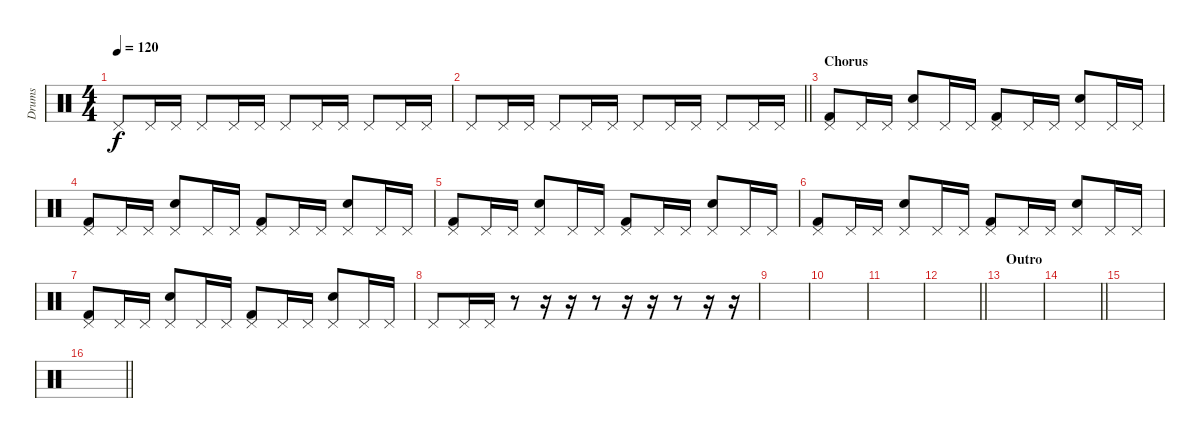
\track ("Drums" "Drums") {instrument percussion}
\staff {score}
\articulation defaults
\ts (4 4)
\tempo 120
\clef neutral
\ks c "Pedal Hi-Hat (hit)".8{dy f} "Pedal Hi-Hat (hit)".16 "Pedal Hi-Hat (hit)".16 "Pedal Hi-Hat (hit)".8 "Pedal Hi-Hat (hit)".16 "Pedal Hi-Hat (hit)".16 "Pedal Hi-Hat (hit)".8 "Pedal Hi-Hat (hit)".16 "Pedal Hi-Hat (hit)".16 "Pedal Hi-Hat (hit)".8 "Pedal Hi-Hat (hit)".16 "Pedal Hi-Hat (hit)".16
|
\barLineRight lightlight "Pedal Hi-Hat (hit)".8 "Pedal Hi-Hat (hit)".16 "Pedal Hi-Hat (hit)".16 "Pedal Hi-Hat (hit)".8 "Pedal Hi-Hat (hit)".16 "Pedal Hi-Hat (hit)".16 "Pedal Hi-Hat (hit)".8 "Pedal Hi-Hat (hit)".16 "Pedal Hi-Hat (hit)".16 "Pedal Hi-Hat (hit)".8 "Pedal Hi-Hat (hit)".16 "Pedal Hi-Hat (hit)".16
|
\section ("" "Chorus")
("Kick (hit) 2" "Pedal Hi-Hat (hit)").8 "Pedal Hi-Hat (hit)".16 "Pedal Hi-Hat (hit)".16 ("Electric Snare (hit)" "Pedal Hi-Hat (hit)").8 "Pedal Hi-Hat (hit)".16 "Pedal Hi-Hat (hit)".16 ("Kick (hit) 2" "Pedal Hi-Hat (hit)").8 "Pedal Hi-Hat (hit)".16 "Pedal Hi-Hat (hit)".16 ("Electric Snare (hit)" "Pedal Hi-Hat (hit)").8 "Pedal Hi-Hat (hit)".16 "Pedal Hi-Hat (hit)".16 |
("Kick (hit) 2" "Pedal Hi-Hat (hit)").8 "Pedal Hi-Hat (hit)".16 "Pedal Hi-Hat (hit)".16 ("Electric Snare (hit)" "Pedal Hi-Hat (hit)").8 "Pedal Hi-Hat (hit)".16 "Pedal Hi-Hat (hit)".16 ("Kick (hit) 2" "Pedal Hi-Hat (hit)").8 "Pedal Hi-Hat (hit)".16 "Pedal Hi-Hat (hit)".16 ("Electric Snare (hit)" "Pedal Hi-Hat (hit)").8 "Pedal Hi-Hat (hit)".16 "Pedal Hi-Hat (hit)".16 |
("Kick (hit) 2" "Pedal Hi-Hat (hit)").8 "Pedal Hi-Hat (hit)".16 "Pedal Hi-Hat (hit)".16 ("Electric Snare (hit)" "Pedal Hi-Hat (hit)").8 "Pedal Hi-Hat (hit)".16 "Pedal Hi-Hat (hit)".16 ("Kick (hit) 2" "Pedal Hi-Hat (hit)").8 "Pedal Hi-Hat (hit)".16 "Pedal Hi-Hat (hit)".16 ("Electric Snare (hit)" "Pedal Hi-Hat (hit)").8 "Pedal Hi-Hat (hit)".16 "Pedal Hi-Hat (hit)".16 |
("Kick (hit) 2" "Pedal Hi-Hat (hit)").8 "Pedal Hi-Hat (hit)".16 "Pedal Hi-Hat (hit)".16 ("Electric Snare (hit)" "Pedal Hi-Hat (hit)").8 "Pedal Hi-Hat (hit)".16 "Pedal Hi-Hat (hit)".16 ("Kick (hit) 2" "Pedal Hi-Hat (hit)").8 "Pedal Hi-Hat (hit)".16 "Pedal Hi-Hat (hit)".16 ("Electric Snare (hit)" "Pedal Hi-Hat (hit)").8 "Pedal Hi-Hat (hit)".16 "Pedal Hi-Hat (hit)".16 |
("Kick (hit) 2" "Pedal Hi-Hat (hit)").8 "Pedal Hi-Hat (hit)".16 "Pedal Hi-Hat (hit)".16 ("Electric Snare (hit)" "Pedal Hi-Hat (hit)").8 "Pedal Hi-Hat (hit)".16 "Pedal Hi-Hat (hit)".16 ("Kick (hit) 2" "Pedal Hi-Hat (hit)").8 "Pedal Hi-Hat (hit)".16 "Pedal Hi-Hat (hit)".16 ("Electric Snare (hit)" "Pedal Hi-Hat (hit)").8 "Pedal Hi-Hat (hit)".16 "Pedal Hi-Hat (hit)".16 |
"Pedal Hi-Hat (hit)".8 "Pedal Hi-Hat (hit)".16 "Pedal Hi-Hat (hit)".16 r.8 r.16 r.16 r.8 r.16 r.16 r.8 r.16 r.16 |
|
|
|
\barLineRight lightlight
|
\section ("" "Outro")
|
\barLineRight lightlight
|
|
\barLineRight lightlight
